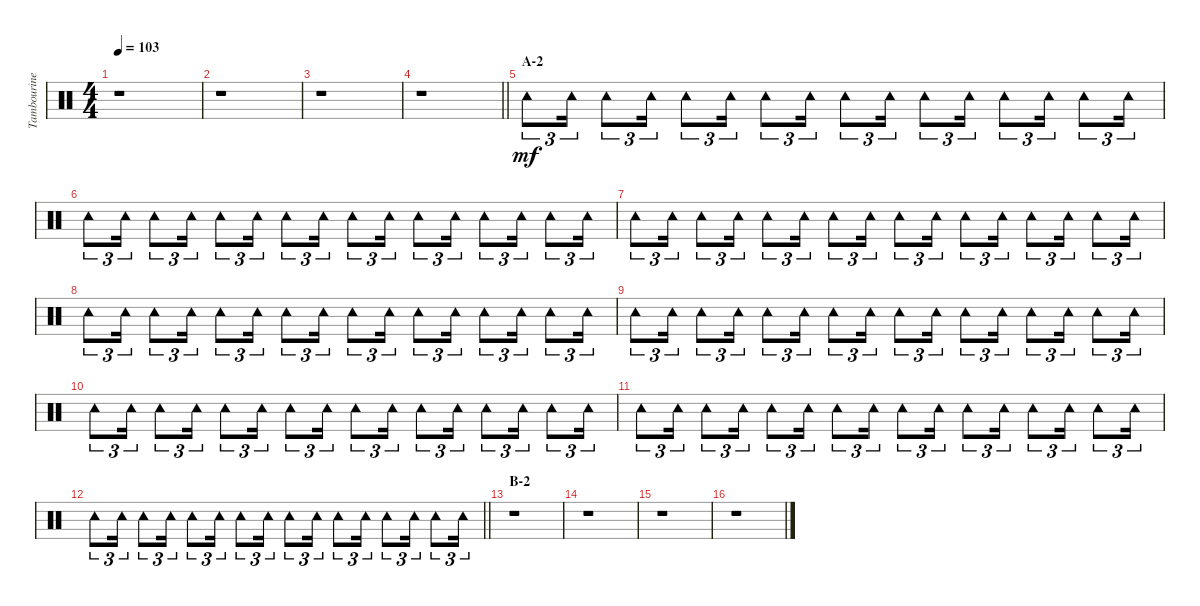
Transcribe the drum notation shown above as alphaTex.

\track ("Tambourine" "Tambourine") {instrument percussion}
\staff {score}
\articulation defaults
\ts (4 4)
\tempo 103
\clef neutral
\ks c
r.1{dy mf} |
r.1 |
r.1 |
\barLineRight lightlight
r.1 |
\section ("" "A-2")
"Tambourine (hit)".8{tu (3 2)} "Tambourine (hit)".16{tu (3 2)} "Tambourine (hit)".8{tu (3 2)} "Tambourine (hit)".16{tu (3 2)} "Tambourine (hit)".8{tu (3 2)} "Tambourine (hit)".16{tu (3 2)} "Tambourine (hit)".8{tu (3 2)} "Tambourine (hit)".16{tu (3 2)} "Tambourine (hit)".8{tu (3 2)} "Tambourine (hit)".16{tu (3 2)} "Tambourine (hit)".8{tu (3 2)} "Tambourine (hit)".16{tu (3 2)} "Tambourine (hit)".8{tu (3 2)} "Tambourine (hit)".16{tu (3 2)} "Tambourine (hit)".8{tu (3 2)} "Tambourine (hit)".16{tu (3 2)} |
"Tambourine (hit)".8{tu (3 2)} "Tambourine (hit)".16{tu (3 2)} "Tambourine (hit)".8{tu (3 2)} "Tambourine (hit)".16{tu (3 2)} "Tambourine (hit)".8{tu (3 2)} "Tambourine (hit)".16{tu (3 2)} "Tambourine (hit)".8{tu (3 2)} "Tambourine (hit)".16{tu (3 2)} "Tambourine (hit)".8{tu (3 2)} "Tambourine (hit)".16{tu (3 2)} "Tambourine (hit)".8{tu (3 2)} "Tambourine (hit)".16{tu (3 2)} "Tambourine (hit)".8{tu (3 2)} "Tambourine (hit)".16{tu (3 2)} "Tambourine (hit)".8{tu (3 2)} "Tambourine (hit)".16{tu (3 2)} |
"Tambourine (hit)".8{tu (3 2)} "Tambourine (hit)".16{tu (3 2)} "Tambourine (hit)".8{tu (3 2)} "Tambourine (hit)".16{tu (3 2)} "Tambourine (hit)".8{tu (3 2)} "Tambourine (hit)".16{tu (3 2)} "Tambourine (hit)".8{tu (3 2)} "Tambourine (hit)".16{tu (3 2)} "Tambourine (hit)".8{tu (3 2)} "Tambourine (hit)".16{tu (3 2)} "Tambourine (hit)".8{tu (3 2)} "Tambourine (hit)".16{tu (3 2)} "Tambourine (hit)".8{tu (3 2)} "Tambourine (hit)".16{tu (3 2)} "Tambourine (hit)".8{tu (3 2)} "Tambourine (hit)".16{tu (3 2)} |
"Tambourine (hit)".8{tu (3 2)} "Tambourine (hit)".16{tu (3 2)} "Tambourine (hit)".8{tu (3 2)} "Tambourine (hit)".16{tu (3 2)} "Tambourine (hit)".8{tu (3 2)} "Tambourine (hit)".16{tu (3 2)} "Tambourine (hit)".8{tu (3 2)} "Tambourine (hit)".16{tu (3 2)} "Tambourine (hit)".8{tu (3 2)} "Tambourine (hit)".16{tu (3 2)} "Tambourine (hit)".8{tu (3 2)} "Tambourine (hit)".16{tu (3 2)} "Tambourine (hit)".8{tu (3 2)} "Tambourine (hit)".16{tu (3 2)} "Tambourine (hit)".8{tu (3 2)} "Tambourine (hit)".16{tu (3 2)} |
"Tambourine (hit)".8{tu (3 2)} "Tambourine (hit)".16{tu (3 2)} "Tambourine (hit)".8{tu (3 2)} "Tambourine (hit)".16{tu (3 2)} "Tambourine (hit)".8{tu (3 2)} "Tambourine (hit)".16{tu (3 2)} "Tambourine (hit)".8{tu (3 2)} "Tambourine (hit)".16{tu (3 2)} "Tambourine (hit)".8{tu (3 2)} "Tambourine (hit)".16{tu (3 2)} "Tambourine (hit)".8{tu (3 2)} "Tambourine (hit)".16{tu (3 2)} "Tambourine (hit)".8{tu (3 2)} "Tambourine (hit)".16{tu (3 2)} "Tambourine (hit)".8{tu (3 2)} "Tambourine (hit)".16{tu (3 2)} |
"Tambourine (hit)".8{tu (3 2)} "Tambourine (hit)".16{tu (3 2)} "Tambourine (hit)".8{tu (3 2)} "Tambourine (hit)".16{tu (3 2)} "Tambourine (hit)".8{tu (3 2)} "Tambourine (hit)".16{tu (3 2)} "Tambourine (hit)".8{tu (3 2)} "Tambourine (hit)".16{tu (3 2)} "Tambourine (hit)".8{tu (3 2)} "Tambourine (hit)".16{tu (3 2)} "Tambourine (hit)".8{tu (3 2)} "Tambourine (hit)".16{tu (3 2)} "Tambourine (hit)".8{tu (3 2)} "Tambourine (hit)".16{tu (3 2)} "Tambourine (hit)".8{tu (3 2)} "Tambourine (hit)".16{tu (3 2)} |
"Tambourine (hit)".8{tu (3 2)} "Tambourine (hit)".16{tu (3 2)} "Tambourine (hit)".8{tu (3 2)} "Tambourine (hit)".16{tu (3 2)} "Tambourine (hit)".8{tu (3 2)} "Tambourine (hit)".16{tu (3 2)} "Tambourine (hit)".8{tu (3 2)} "Tambourine (hit)".16{tu (3 2)} "Tambourine (hit)".8{tu (3 2)} "Tambourine (hit)".16{tu (3 2)} "Tambourine (hit)".8{tu (3 2)} "Tambourine (hit)".16{tu (3 2)} "Tambourine (hit)".8{tu (3 2)} "Tambourine (hit)".16{tu (3 2)} "Tambourine (hit)".8{tu (3 2)} "Tambourine (hit)".16{tu (3 2)} |
\barLineRight lightlight "Tambourine (hit)".8{tu (3 2)} "Tambourine (hit)".16{tu (3 2)} "Tambourine (hit)".8{tu (3 2)} "Tambourine (hit)".16{tu (3 2)} "Tambourine (hit)".8{tu (3 2)} "Tambourine (hit)".16{tu (3 2)} "Tambourine (hit)".8{tu (3 2)} "Tambourine (hit)".16{tu (3 2)} "Tambourine (hit)".8{tu (3 2)} "Tambourine (hit)".16{tu (3 2)} "Tambourine (hit)".8{tu (3 2)} "Tambourine (hit)".16{tu (3 2)} "Tambourine (hit)".8{tu (3 2)} "Tambourine (hit)".16{tu (3 2)} "Tambourine (hit)".8{tu (3 2)} "Tambourine (hit)".16{tu (3 2)}
|
\section ("" "B-2")
r.1 |
r.1 |
r.1 |
r.1
